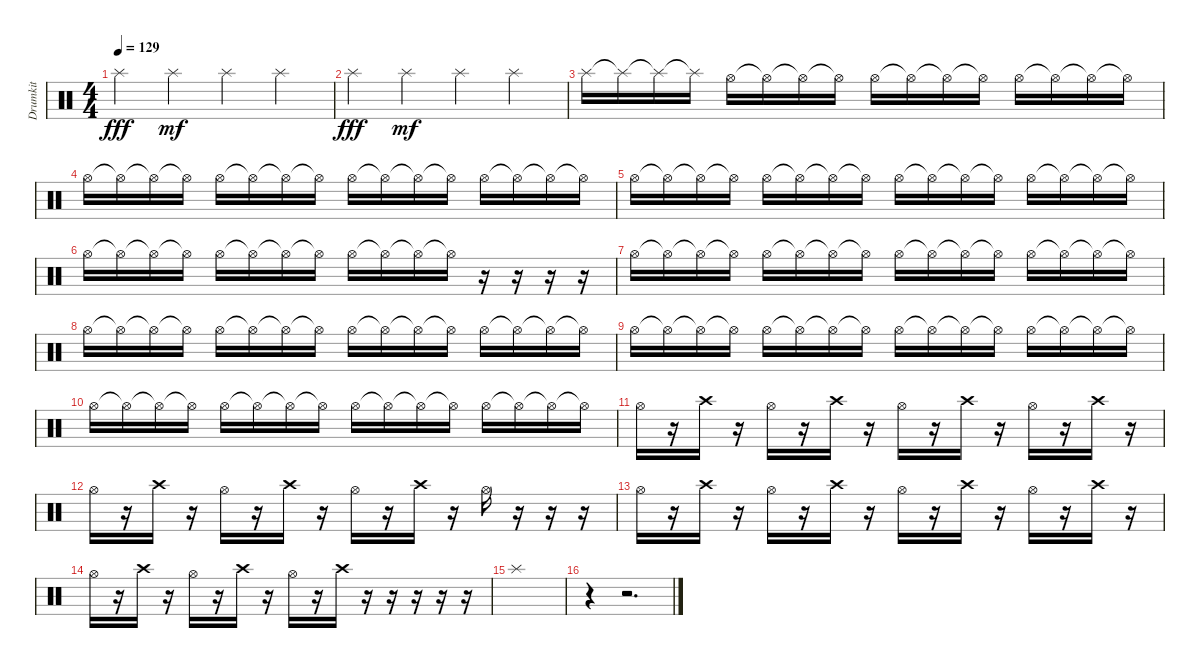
\track ("Drumkit" "Drumkit") {instrument percussion}
\staff {score}
\articulation defaults
\ts (4 4)
\tempo 129
\clef neutral
\ks c "Splash (hit)".4{dy fff} "Splash (hit)".4{dy mf} "Splash (hit)".4 "Splash (hit)".4
|
"Splash (hit)".4{dy fff} "Splash (hit)".4{dy mf} "Splash (hit)".4 "Splash (hit)".4 |
"Splash (hit)".16 "Splash (hit)"{t}.16 "Splash (hit)"{t}.16 "Splash (hit)"{t}.16 "Hi-Hat (open)".16 "Hi-Hat (open)"{t}.16 "Hi-Hat (open)"{t}.16 "Hi-Hat (open)"{t}.16 "Hi-Hat (open)".16 "Hi-Hat (open)"{t}.16 "Hi-Hat (open)"{t}.16 "Hi-Hat (open)"{t}.16 "Hi-Hat (open)".16 "Hi-Hat (open)"{t}.16 "Hi-Hat (open)"{t}.16 "Hi-Hat (open)"{t}.16 |
"Hi-Hat (open)".16 "Hi-Hat (open)"{t}.16 "Hi-Hat (open)"{t}.16 "Hi-Hat (open)"{t}.16 "Hi-Hat (open)".16 "Hi-Hat (open)"{t}.16 "Hi-Hat (open)"{t}.16 "Hi-Hat (open)"{t}.16 "Hi-Hat (open)".16 "Hi-Hat (open)"{t}.16 "Hi-Hat (open)"{t}.16 "Hi-Hat (open)"{t}.16 "Hi-Hat (open)".16 "Hi-Hat (open)"{t}.16 "Hi-Hat (open)"{t}.16 "Hi-Hat (open)"{t}.16 |
"Hi-Hat (open)".16 "Hi-Hat (open)"{t}.16 "Hi-Hat (open)"{t}.16 "Hi-Hat (open)"{t}.16 "Hi-Hat (open)".16 "Hi-Hat (open)"{t}.16 "Hi-Hat (open)"{t}.16 "Hi-Hat (open)"{t}.16 "Hi-Hat (open)".16 "Hi-Hat (open)"{t}.16 "Hi-Hat (open)"{t}.16 "Hi-Hat (open)"{t}.16 "Hi-Hat (open)".16 "Hi-Hat (open)"{t}.16 "Hi-Hat (open)"{t}.16 "Hi-Hat (open)"{t}.16 |
"Hi-Hat (open)".16 "Hi-Hat (open)"{t}.16 "Hi-Hat (open)"{t}.16 "Hi-Hat (open)"{t}.16 "Hi-Hat (open)".16 "Hi-Hat (open)"{t}.16 "Hi-Hat (open)"{t}.16 "Hi-Hat (open)"{t}.16 "Hi-Hat (open)".16 "Hi-Hat (open)"{t}.16 "Hi-Hat (open)"{t}.16 "Hi-Hat (open)"{t}.16 r.16 r.16 r.16 r.16 |
"Hi-Hat (open)".16 "Hi-Hat (open)"{t}.16 "Hi-Hat (open)"{t}.16 "Hi-Hat (open)"{t}.16 "Hi-Hat (open)".16 "Hi-Hat (open)"{t}.16 "Hi-Hat (open)"{t}.16 "Hi-Hat (open)"{t}.16 "Hi-Hat (open)".16 "Hi-Hat (open)"{t}.16 "Hi-Hat (open)"{t}.16 "Hi-Hat (open)"{t}.16 "Hi-Hat (open)".16 "Hi-Hat (open)"{t}.16 "Hi-Hat (open)"{t}.16 "Hi-Hat (open)"{t}.16 |
"Hi-Hat (open)".16 "Hi-Hat (open)"{t}.16 "Hi-Hat (open)"{t}.16 "Hi-Hat (open)"{t}.16 "Hi-Hat (open)".16 "Hi-Hat (open)"{t}.16 "Hi-Hat (open)"{t}.16 "Hi-Hat (open)"{t}.16 "Hi-Hat (open)".16 "Hi-Hat (open)"{t}.16 "Hi-Hat (open)"{t}.16 "Hi-Hat (open)"{t}.16 "Hi-Hat (open)".16 "Hi-Hat (open)"{t}.16 "Hi-Hat (open)"{t}.16 "Hi-Hat (open)"{t}.16 |
"Hi-Hat (open)".16 "Hi-Hat (open)"{t}.16 "Hi-Hat (open)"{t}.16 "Hi-Hat (open)"{t}.16 "Hi-Hat (open)".16 "Hi-Hat (open)"{t}.16 "Hi-Hat (open)"{t}.16 "Hi-Hat (open)"{t}.16 "Hi-Hat (open)".16 "Hi-Hat (open)"{t}.16 "Hi-Hat (open)"{t}.16 "Hi-Hat (open)"{t}.16 "Hi-Hat (open)".16 "Hi-Hat (open)"{t}.16 "Hi-Hat (open)"{t}.16 "Hi-Hat (open)"{t}.16 |
"Hi-Hat (open)".16 "Hi-Hat (open)"{t}.16 "Hi-Hat (open)"{t}.16 "Hi-Hat (open)"{t}.16 "Hi-Hat (open)".16 "Hi-Hat (open)"{t}.16 "Hi-Hat (open)"{t}.16 "Hi-Hat (open)"{t}.16 "Hi-Hat (open)".16 "Hi-Hat (open)"{t}.16 "Hi-Hat (open)"{t}.16 "Hi-Hat (open)"{t}.16 "Hi-Hat (open)".16 "Hi-Hat (open)"{t}.16 "Hi-Hat (open)"{t}.16 "Hi-Hat (open)"{t}.16 |
"Hi-Hat (open)".16 r.16 "Crash high (hit)".16 r.16 "Hi-Hat (open)".16 r.16 "Crash high (hit)".16 r.16 "Hi-Hat (open)".16 r.16 "Crash high (hit)".16 r.16 "Hi-Hat (open)".16 r.16 "Crash high (hit)".16 r.16 |
"Hi-Hat (open)".16 r.16 "Crash high (hit)".16 r.16 "Hi-Hat (open)".16 r.16 "Crash high (hit)".16 r.16 "Hi-Hat (open)".16 r.16 "Crash high (hit)".16 r.16 "Hi-Hat (open)".16 r.16 r.16 r.16 |
"Hi-Hat (open)".16 r.16 "Crash high (hit)".16 r.16 "Hi-Hat (open)".16 r.16 "Crash high (hit)".16 r.16 "Hi-Hat (open)".16 r.16 "Crash high (hit)".16 r.16 "Hi-Hat (open)".16 r.16 "Crash high (hit)".16 r.16 |
"Hi-Hat (open)".16 r.16 "Crash high (hit)".16 r.16 "Hi-Hat (open)".16 r.16 "Crash high (hit)".16 r.16 "Hi-Hat (open)".16 r.16 "Crash high (hit)".16 r.16 r.16 r.16 r.16 r.16 |
"Splash (hit)".1 |
r.4 r.2{d}
